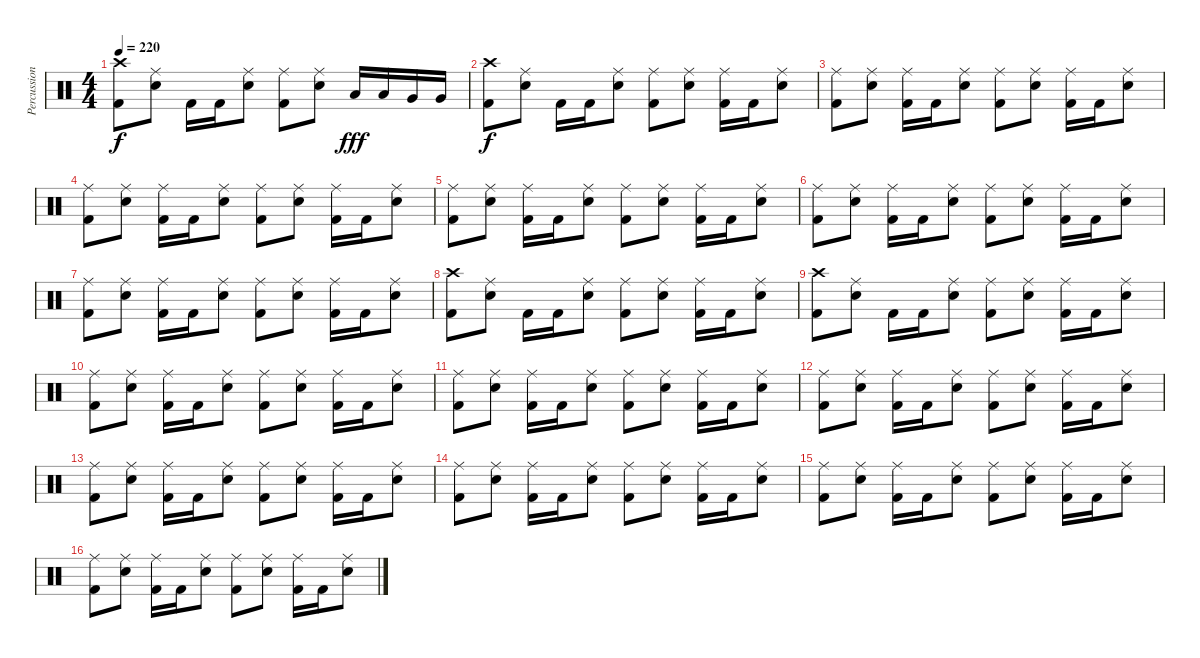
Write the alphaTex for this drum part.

\track ("Percussions" "Percussion") {instrument percussion}
\staff {score}
\articulation defaults
\ts (4 4)
\tempo 220
\clef neutral
\ks c
("Crash high (hit)" "Kick (hit) 2").8{dy f} ("Ride (middle)" "Snare (hit) 2").8 "Kick (hit) 2".16 "Kick (hit) 2".16 ("Ride (middle)" "Snare (hit) 2").8 ("Ride (middle)" "Kick (hit) 2").8 ("Ride (middle)" "Snare (hit) 2").8 "Low Tom (hit)".16{dy fff} "Low Tom (hit)".16 "Very Low Tom (hit)".16 "Very Low Tom (hit)".16 |
("Crash high (hit)" "Kick (hit) 2").8{dy f} ("Ride (middle)" "Snare (hit) 2").8 "Kick (hit) 2".16 "Kick (hit) 2".16 ("Ride (middle)" "Snare (hit) 2").8 ("Ride (middle)" "Kick (hit) 2").8 ("Ride (middle)" "Snare (hit) 2").8 ("Ride (middle)" "Kick (hit) 2").16 "Kick (hit) 2".16 ("Ride (middle)" "Snare (hit) 2").8 |
("Ride (middle)" "Kick (hit) 2").8 ("Ride (middle)" "Snare (hit) 2").8 ("Ride (middle)" "Kick (hit) 2").16 "Kick (hit) 2".16 ("Ride (middle)" "Snare (hit) 2").8 ("Ride (middle)" "Kick (hit) 2").8 ("Ride (middle)" "Snare (hit) 2").8 ("Ride (middle)" "Kick (hit) 2").16 "Kick (hit) 2".16 ("Ride (middle)" "Snare (hit) 2").8 |
("Ride (middle)" "Kick (hit) 2").8 ("Ride (middle)" "Snare (hit) 2").8 ("Ride (middle)" "Kick (hit) 2").16 "Kick (hit) 2".16 ("Ride (middle)" "Snare (hit) 2").8 ("Ride (middle)" "Kick (hit) 2").8 ("Ride (middle)" "Snare (hit) 2").8 ("Ride (middle)" "Kick (hit) 2").16 "Kick (hit) 2".16 ("Ride (middle)" "Snare (hit) 2").8 |
("Ride (middle)" "Kick (hit) 2").8 ("Ride (middle)" "Snare (hit) 2").8 ("Ride (middle)" "Kick (hit) 2").16 "Kick (hit) 2".16 ("Ride (middle)" "Snare (hit) 2").8 ("Ride (middle)" "Kick (hit) 2").8 ("Ride (middle)" "Snare (hit) 2").8 ("Ride (middle)" "Kick (hit) 2").16 "Kick (hit) 2".16 ("Ride (middle)" "Snare (hit) 2").8 |
("Ride (middle)" "Kick (hit) 2").8 ("Ride (middle)" "Snare (hit) 2").8 ("Ride (middle)" "Kick (hit) 2").16 "Kick (hit) 2".16 ("Ride (middle)" "Snare (hit) 2").8 ("Ride (middle)" "Kick (hit) 2").8 ("Ride (middle)" "Snare (hit) 2").8 ("Ride (middle)" "Kick (hit) 2").16 "Kick (hit) 2".16 ("Ride (middle)" "Snare (hit) 2").8 |
("Ride (middle)" "Kick (hit) 2").8 ("Ride (middle)" "Snare (hit) 2").8 ("Ride (middle)" "Kick (hit) 2").16 "Kick (hit) 2".16 ("Ride (middle)" "Snare (hit) 2").8 ("Ride (middle)" "Kick (hit) 2").8 ("Ride (middle)" "Snare (hit) 2").8 ("Ride (middle)" "Kick (hit) 2").16 "Kick (hit) 2".16 ("Ride (middle)" "Snare (hit) 2").8 |
("Crash high (hit)" "Kick (hit) 2").8 ("Ride (middle)" "Snare (hit) 2").8 "Kick (hit) 2".16 "Kick (hit) 2".16 ("Ride (middle)" "Snare (hit) 2").8 ("Ride (middle)" "Kick (hit) 2").8 ("Ride (middle)" "Snare (hit) 2").8 ("Ride (middle)" "Kick (hit) 2").16 "Kick (hit) 2".16 ("Ride (middle)" "Snare (hit) 2").8 |
("Crash high (hit)" "Kick (hit) 2").8 ("Ride (middle)" "Snare (hit) 2").8 "Kick (hit) 2".16 "Kick (hit) 2".16 ("Ride (middle)" "Snare (hit) 2").8 ("Ride (middle)" "Kick (hit) 2").8 ("Ride (middle)" "Snare (hit) 2").8 ("Ride (middle)" "Kick (hit) 2").16 "Kick (hit) 2".16 ("Ride (middle)" "Snare (hit) 2").8 |
("Ride (middle)" "Kick (hit) 2").8 ("Ride (middle)" "Snare (hit) 2").8 ("Ride (middle)" "Kick (hit) 2").16 "Kick (hit) 2".16 ("Ride (middle)" "Snare (hit) 2").8 ("Ride (middle)" "Kick (hit) 2").8 ("Ride (middle)" "Snare (hit) 2").8 ("Ride (middle)" "Kick (hit) 2").16 "Kick (hit) 2".16 ("Ride (middle)" "Snare (hit) 2").8 |
("Ride (middle)" "Kick (hit) 2").8 ("Ride (middle)" "Snare (hit) 2").8 ("Ride (middle)" "Kick (hit) 2").16 "Kick (hit) 2".16 ("Ride (middle)" "Snare (hit) 2").8 ("Ride (middle)" "Kick (hit) 2").8 ("Ride (middle)" "Snare (hit) 2").8 ("Ride (middle)" "Kick (hit) 2").16 "Kick (hit) 2".16 ("Ride (middle)" "Snare (hit) 2").8 |
("Ride (middle)" "Kick (hit) 2").8 ("Ride (middle)" "Snare (hit) 2").8 ("Ride (middle)" "Kick (hit) 2").16 "Kick (hit) 2".16 ("Ride (middle)" "Snare (hit) 2").8 ("Ride (middle)" "Kick (hit) 2").8 ("Ride (middle)" "Snare (hit) 2").8 ("Ride (middle)" "Kick (hit) 2").16 "Kick (hit) 2".16 ("Ride (middle)" "Snare (hit) 2").8 |
("Ride (middle)" "Kick (hit) 2").8 ("Ride (middle)" "Snare (hit) 2").8 ("Ride (middle)" "Kick (hit) 2").16 "Kick (hit) 2".16 ("Ride (middle)" "Snare (hit) 2").8 ("Ride (middle)" "Kick (hit) 2").8 ("Ride (middle)" "Snare (hit) 2").8 ("Ride (middle)" "Kick (hit) 2").16 "Kick (hit) 2".16 ("Ride (middle)" "Snare (hit) 2").8 |
("Ride (middle)" "Kick (hit) 2").8 ("Ride (middle)" "Snare (hit) 2").8 ("Ride (middle)" "Kick (hit) 2").16 "Kick (hit) 2".16 ("Ride (middle)" "Snare (hit) 2").8 ("Ride (middle)" "Kick (hit) 2").8 ("Ride (middle)" "Snare (hit) 2").8 ("Ride (middle)" "Kick (hit) 2").16 "Kick (hit) 2".16 ("Ride (middle)" "Snare (hit) 2").8 |
("Ride (middle)" "Kick (hit) 2").8 ("Ride (middle)" "Snare (hit) 2").8 ("Ride (middle)" "Kick (hit) 2").16 "Kick (hit) 2".16 ("Ride (middle)" "Snare (hit) 2").8 ("Ride (middle)" "Kick (hit) 2").8 ("Ride (middle)" "Snare (hit) 2").8 ("Ride (middle)" "Kick (hit) 2").16 "Kick (hit) 2".16 ("Ride (middle)" "Snare (hit) 2").8 |
("Ride (middle)" "Kick (hit) 2").8 ("Ride (middle)" "Snare (hit) 2").8 ("Ride (middle)" "Kick (hit) 2").16 "Kick (hit) 2".16 ("Ride (middle)" "Snare (hit) 2").8 ("Ride (middle)" "Kick (hit) 2").8 ("Ride (middle)" "Snare (hit) 2").8 ("Ride (middle)" "Kick (hit) 2").16 "Kick (hit) 2".16 ("Ride (middle)" "Snare (hit) 2").8
